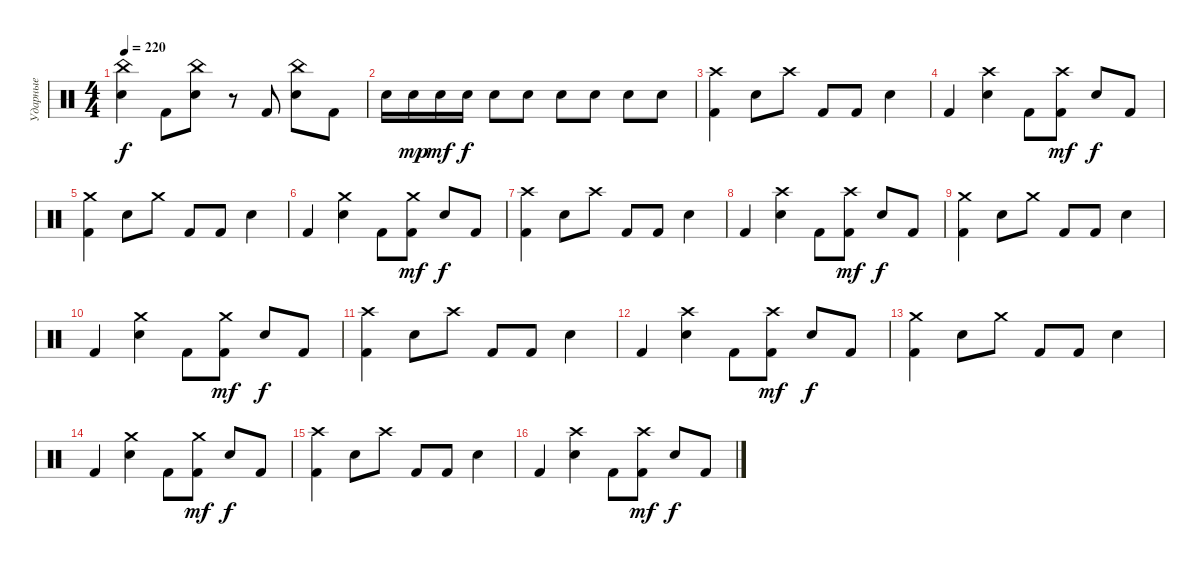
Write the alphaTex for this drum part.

\track ("Ударные" "Ударные") {instrument percussion}
\staff {score}
\articulation defaults
\ts (4 4)
\tempo 220
\clef neutral
\ks c
("China (hit)" "Electric Snare (hit)").4{dy f} "Kick (hit) 2".8 ("China (hit)" "Electric Snare (hit)").8 r.8 "Kick (hit) 2".8 ("China (hit)" "Electric Snare (hit)").8 "Kick (hit) 2".8 |
"Electric Snare (hit)".16 "Electric Snare (hit)".16{dy mp} "Electric Snare (hit)".16{dy mf} "Electric Snare (hit)".16{dy f} "Electric Snare (hit)".8 "Electric Snare (hit)".8 "Electric Snare (hit)".8 "Electric Snare (hit)".8 "Electric Snare (hit)".8 "Electric Snare (hit)".8 |
("Crash high (hit)" "Kick (hit) 2").4 "Electric Snare (hit)".8 "Crash high (hit)".8 "Kick (hit) 2".8 "Kick (hit) 2".8 "Electric Snare (hit)".4 |
"Kick (hit) 2".4 ("Crash high (hit)" "Electric Snare (hit)").4 "Kick (hit) 2".8 ("Crash high (hit)" "Kick (hit) 2").8{dy mf} "Electric Snare (hit)".8{dy f} "Kick (hit) 2".8 |
("Crash medium (hit)" "Kick (hit) 2").4 "Electric Snare (hit)".8 "Crash medium (hit)".8 "Kick (hit) 2".8 "Kick (hit) 2".8 "Electric Snare (hit)".4 |
"Kick (hit) 2".4 ("Crash medium (hit)" "Electric Snare (hit)").4 "Kick (hit) 2".8 ("Crash medium (hit)" "Kick (hit) 2").8{dy mf} "Electric Snare (hit)".8{dy f} "Kick (hit) 2".8 |
("Crash high (hit)" "Kick (hit) 2").4 "Electric Snare (hit)".8 "Crash high (hit)".8 "Kick (hit) 2".8 "Kick (hit) 2".8 "Electric Snare (hit)".4 |
"Kick (hit) 2".4 ("Crash high (hit)" "Electric Snare (hit)").4 "Kick (hit) 2".8 ("Crash high (hit)" "Kick (hit) 2").8{dy mf} "Electric Snare (hit)".8{dy f} "Kick (hit) 2".8 |
("Crash medium (hit)" "Kick (hit) 2").4 "Electric Snare (hit)".8 "Crash medium (hit)".8 "Kick (hit) 2".8 "Kick (hit) 2".8 "Electric Snare (hit)".4 |
"Kick (hit) 2".4 ("Crash medium (hit)" "Electric Snare (hit)").4 "Kick (hit) 2".8 ("Crash medium (hit)" "Kick (hit) 2").8{dy mf} "Electric Snare (hit)".8{dy f} "Kick (hit) 2".8 |
("Crash high (hit)" "Kick (hit) 2").4 "Electric Snare (hit)".8 "Crash high (hit)".8 "Kick (hit) 2".8 "Kick (hit) 2".8 "Electric Snare (hit)".4 |
"Kick (hit) 2".4 ("Crash high (hit)" "Electric Snare (hit)").4 "Kick (hit) 2".8 ("Crash high (hit)" "Kick (hit) 2").8{dy mf} "Electric Snare (hit)".8{dy f} "Kick (hit) 2".8 |
("Crash medium (hit)" "Kick (hit) 2").4 "Electric Snare (hit)".8 "Crash medium (hit)".8 "Kick (hit) 2".8 "Kick (hit) 2".8 "Electric Snare (hit)".4 |
"Kick (hit) 2".4 ("Crash medium (hit)" "Electric Snare (hit)").4 "Kick (hit) 2".8 ("Crash medium (hit)" "Kick (hit) 2").8{dy mf} "Electric Snare (hit)".8{dy f} "Kick (hit) 2".8 |
("Crash high (hit)" "Kick (hit) 2").4 "Electric Snare (hit)".8 "Crash high (hit)".8 "Kick (hit) 2".8 "Kick (hit) 2".8 "Electric Snare (hit)".4 |
"Kick (hit) 2".4 ("Crash high (hit)" "Electric Snare (hit)").4 "Kick (hit) 2".8 ("Crash high (hit)" "Kick (hit) 2").8{dy mf} "Electric Snare (hit)".8{dy f} "Kick (hit) 2".8
